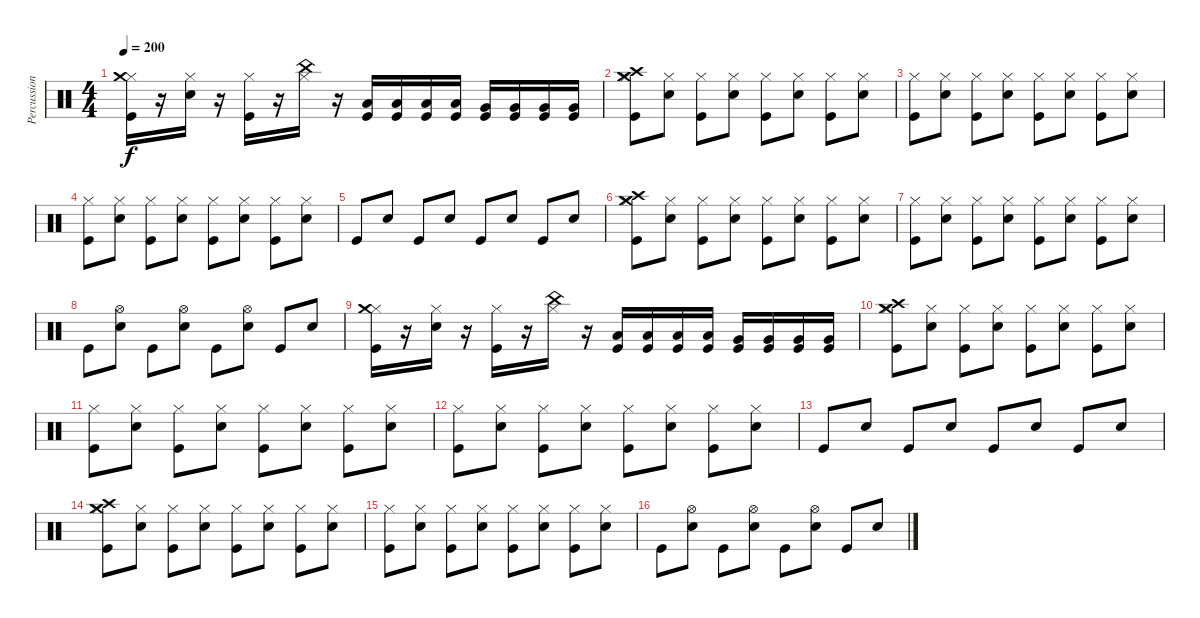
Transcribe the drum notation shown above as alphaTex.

\track ("Percussion" "Percussion") {instrument percussion}
\staff {score}
\articulation defaults
\ts (4 4)
\tempo 200
\clef neutral
\ks c
("Kick (hit)" "Hi-Hat (closed)" "Crash medium (hit)").16{dy f} r.16 ("Electric Snare (hit)" "Hi-Hat (closed)").16 r.16 ("Kick (hit)" "Hi-Hat (closed)").16 r.16 ("China (hit)" "Hi-Hat (closed)").16 r.16 ("Kick (hit)" "Low Tom (hit)").16 ("Kick (hit)" "Low Tom (hit)").16 ("Kick (hit)" "Low Tom (hit)").16 ("Kick (hit)" "Low Tom (hit)").16 ("Kick (hit)" "Very Low Tom (hit)").16 ("Kick (hit)" "Very Low Tom (hit)").16 ("Kick (hit)" "Very Low Tom (hit)").16 ("Kick (hit)" "Very Low Tom (hit)").16 |
("Kick (hit)" "Hi-Hat (closed)" "Crash high (hit)" "Crash medium (hit)").8 ("Electric Snare (hit)" "Hi-Hat (closed)").8 ("Kick (hit)" "Hi-Hat (closed)").8 ("Electric Snare (hit)" "Hi-Hat (closed)").8 ("Kick (hit)" "Hi-Hat (closed)").8 ("Electric Snare (hit)" "Hi-Hat (closed)").8 ("Kick (hit)" "Hi-Hat (closed)").8 ("Electric Snare (hit)" "Hi-Hat (closed)").8 |
("Kick (hit)" "Hi-Hat (closed)").8 ("Electric Snare (hit)" "Hi-Hat (closed)").8 ("Kick (hit)" "Hi-Hat (closed)").8 ("Electric Snare (hit)" "Hi-Hat (closed)").8 ("Kick (hit)" "Hi-Hat (closed)").8 ("Electric Snare (hit)" "Hi-Hat (closed)").8 ("Kick (hit)" "Hi-Hat (closed)").8 ("Electric Snare (hit)" "Hi-Hat (closed)").8 |
("Kick (hit)" "Hi-Hat (closed)").8 ("Electric Snare (hit)" "Hi-Hat (closed)").8 ("Kick (hit)" "Hi-Hat (closed)").8 ("Electric Snare (hit)" "Hi-Hat (closed)").8 ("Kick (hit)" "Hi-Hat (closed)").8 ("Electric Snare (hit)" "Hi-Hat (closed)").8 ("Kick (hit)" "Hi-Hat (closed)").8 ("Electric Snare (hit)" "Hi-Hat (closed)").8 |
"Kick (hit)".8 "Electric Snare (hit)".8 "Kick (hit)".8 "Electric Snare (hit)".8 "Kick (hit)".8 "Electric Snare (hit)".8 "Kick (hit)".8 "Electric Snare (hit)".8 |
("Kick (hit)" "Hi-Hat (closed)" "Crash high (hit)" "Crash medium (hit)").8 ("Electric Snare (hit)" "Hi-Hat (closed)").8 ("Kick (hit)" "Hi-Hat (closed)").8 ("Electric Snare (hit)" "Hi-Hat (closed)").8 ("Kick (hit)" "Hi-Hat (closed)").8 ("Electric Snare (hit)" "Hi-Hat (closed)").8 ("Kick (hit)" "Hi-Hat (closed)").8 ("Electric Snare (hit)" "Hi-Hat (closed)").8 |
("Kick (hit)" "Hi-Hat (closed)").8 ("Electric Snare (hit)" "Hi-Hat (closed)").8 ("Kick (hit)" "Hi-Hat (closed)").8 ("Electric Snare (hit)" "Hi-Hat (closed)").8 ("Kick (hit)" "Hi-Hat (closed)").8 ("Electric Snare (hit)" "Hi-Hat (closed)").8 ("Kick (hit)" "Hi-Hat (closed)").8 ("Electric Snare (hit)" "Hi-Hat (closed)").8 |
"Kick (hit)".8 ("Electric Snare (hit)" "Hi-Hat (open)").8 "Kick (hit)".8 ("Electric Snare (hit)" "Hi-Hat (open)").8 "Kick (hit)".8 ("Electric Snare (hit)" "Hi-Hat (open)").8 "Kick (hit)".8 "Electric Snare (hit)".8 |
("Kick (hit)" "Hi-Hat (closed)" "Crash medium (hit)").16 r.16 ("Electric Snare (hit)" "Hi-Hat (closed)").16 r.16 ("Kick (hit)" "Hi-Hat (closed)").16 r.16 ("China (hit)" "Hi-Hat (closed)").16 r.16 ("Kick (hit)" "Low Tom (hit)").16 ("Kick (hit)" "Low Tom (hit)").16 ("Kick (hit)" "Low Tom (hit)").16 ("Kick (hit)" "Low Tom (hit)").16 ("Kick (hit)" "Very Low Tom (hit)").16 ("Kick (hit)" "Very Low Tom (hit)").16 ("Kick (hit)" "Very Low Tom (hit)").16 ("Kick (hit)" "Very Low Tom (hit)").16 |
("Kick (hit)" "Hi-Hat (closed)" "Crash high (hit)" "Crash medium (hit)").8 ("Electric Snare (hit)" "Hi-Hat (closed)").8 ("Kick (hit)" "Hi-Hat (closed)").8 ("Electric Snare (hit)" "Hi-Hat (closed)").8 ("Kick (hit)" "Hi-Hat (closed)").8 ("Electric Snare (hit)" "Hi-Hat (closed)").8 ("Kick (hit)" "Hi-Hat (closed)").8 ("Electric Snare (hit)" "Hi-Hat (closed)").8 |
("Kick (hit)" "Hi-Hat (closed)").8 ("Electric Snare (hit)" "Hi-Hat (closed)").8 ("Kick (hit)" "Hi-Hat (closed)").8 ("Electric Snare (hit)" "Hi-Hat (closed)").8 ("Kick (hit)" "Hi-Hat (closed)").8 ("Electric Snare (hit)" "Hi-Hat (closed)").8 ("Kick (hit)" "Hi-Hat (closed)").8 ("Electric Snare (hit)" "Hi-Hat (closed)").8 |
("Kick (hit)" "Hi-Hat (closed)").8 ("Electric Snare (hit)" "Hi-Hat (closed)").8 ("Kick (hit)" "Hi-Hat (closed)").8 ("Electric Snare (hit)" "Hi-Hat (closed)").8 ("Kick (hit)" "Hi-Hat (closed)").8 ("Electric Snare (hit)" "Hi-Hat (closed)").8 ("Kick (hit)" "Hi-Hat (closed)").8 ("Electric Snare (hit)" "Hi-Hat (closed)").8 |
"Kick (hit)".8 "Electric Snare (hit)".8 "Kick (hit)".8 "Electric Snare (hit)".8 "Kick (hit)".8 "Electric Snare (hit)".8 "Kick (hit)".8 "Electric Snare (hit)".8 |
("Kick (hit)" "Hi-Hat (closed)" "Crash high (hit)" "Crash medium (hit)").8 ("Electric Snare (hit)" "Hi-Hat (closed)").8 ("Kick (hit)" "Hi-Hat (closed)").8 ("Electric Snare (hit)" "Hi-Hat (closed)").8 ("Kick (hit)" "Hi-Hat (closed)").8 ("Electric Snare (hit)" "Hi-Hat (closed)").8 ("Kick (hit)" "Hi-Hat (closed)").8 ("Electric Snare (hit)" "Hi-Hat (closed)").8 |
("Kick (hit)" "Hi-Hat (closed)").8 ("Electric Snare (hit)" "Hi-Hat (closed)").8 ("Kick (hit)" "Hi-Hat (closed)").8 ("Electric Snare (hit)" "Hi-Hat (closed)").8 ("Kick (hit)" "Hi-Hat (closed)").8 ("Electric Snare (hit)" "Hi-Hat (closed)").8 ("Kick (hit)" "Hi-Hat (closed)").8 ("Electric Snare (hit)" "Hi-Hat (closed)").8 |
"Kick (hit)".8 ("Electric Snare (hit)" "Hi-Hat (open)").8 "Kick (hit)".8 ("Electric Snare (hit)" "Hi-Hat (open)").8 "Kick (hit)".8 ("Electric Snare (hit)" "Hi-Hat (open)").8 "Kick (hit)".8 "Electric Snare (hit)".8
